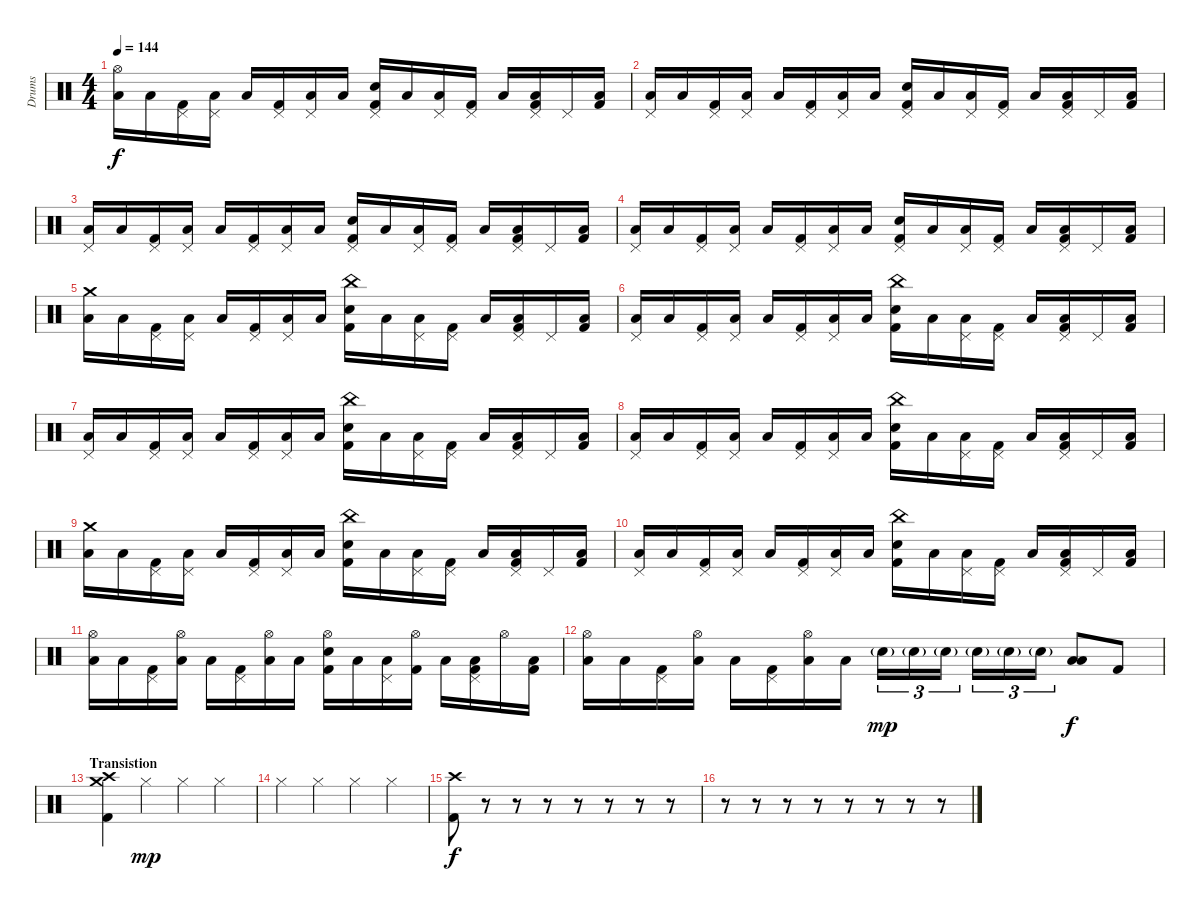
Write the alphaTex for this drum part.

\track ("Drums" "Drums") {instrument percussion}
\staff {score}
\articulation defaults
\ts (4 4)
\tempo 144
\clef neutral
\ks c
("Hi-Hat (open)" "Low Floor Tom (hit)").16{dy f} "Low Floor Tom (hit)".16 ("Pedal Hi-Hat (hit)" "Kick (hit) 2").16 ("Pedal Hi-Hat (hit)" "Low Floor Tom (hit)").16 "Low Floor Tom (hit)".16 ("Pedal Hi-Hat (hit)" "Kick (hit) 2").16 ("Pedal Hi-Hat (hit)" "Low Floor Tom (hit)").16 "Low Floor Tom (hit)".16 ("Pedal Hi-Hat (hit)" "Electric Snare (hit)" "Kick (hit) 2").16 "Low Floor Tom (hit)".16 ("Pedal Hi-Hat (hit)" "Low Floor Tom (hit)").16 ("Pedal Hi-Hat (hit)" "Kick (hit) 2").16 "Low Floor Tom (hit)".16 ("Pedal Hi-Hat (hit)" "Low Floor Tom (hit)" "Kick (hit) 2").16 "Pedal Hi-Hat (hit)".16 ("Low Floor Tom (hit)" "Kick (hit) 2").16 |
("Pedal Hi-Hat (hit)" "Low Floor Tom (hit)").16 "Low Floor Tom (hit)".16 ("Pedal Hi-Hat (hit)" "Kick (hit) 2").16 ("Pedal Hi-Hat (hit)" "Low Floor Tom (hit)").16 "Low Floor Tom (hit)".16 ("Pedal Hi-Hat (hit)" "Kick (hit) 2").16 ("Pedal Hi-Hat (hit)" "Low Floor Tom (hit)").16 "Low Floor Tom (hit)".16 ("Pedal Hi-Hat (hit)" "Electric Snare (hit)" "Kick (hit) 2").16 "Low Floor Tom (hit)".16 ("Pedal Hi-Hat (hit)" "Low Floor Tom (hit)").16 ("Pedal Hi-Hat (hit)" "Kick (hit) 2").16 "Low Floor Tom (hit)".16 ("Pedal Hi-Hat (hit)" "Low Floor Tom (hit)" "Kick (hit) 2").16 "Pedal Hi-Hat (hit)".16 ("Low Floor Tom (hit)" "Kick (hit) 2").16 |
("Pedal Hi-Hat (hit)" "Low Floor Tom (hit)").16 "Low Floor Tom (hit)".16 ("Pedal Hi-Hat (hit)" "Kick (hit) 2").16 ("Pedal Hi-Hat (hit)" "Low Floor Tom (hit)").16 "Low Floor Tom (hit)".16 ("Pedal Hi-Hat (hit)" "Kick (hit) 2").16 ("Pedal Hi-Hat (hit)" "Low Floor Tom (hit)").16 "Low Floor Tom (hit)".16 ("Pedal Hi-Hat (hit)" "Electric Snare (hit)" "Kick (hit) 2").16 "Low Floor Tom (hit)".16 ("Pedal Hi-Hat (hit)" "Low Floor Tom (hit)").16 ("Pedal Hi-Hat (hit)" "Kick (hit) 2").16 "Low Floor Tom (hit)".16 ("Pedal Hi-Hat (hit)" "Low Floor Tom (hit)" "Kick (hit) 2").16 "Pedal Hi-Hat (hit)".16 ("Low Floor Tom (hit)" "Kick (hit) 2").16 |
("Pedal Hi-Hat (hit)" "Low Floor Tom (hit)").16 "Low Floor Tom (hit)".16 ("Pedal Hi-Hat (hit)" "Kick (hit) 2").16 ("Pedal Hi-Hat (hit)" "Low Floor Tom (hit)").16 "Low Floor Tom (hit)".16 ("Pedal Hi-Hat (hit)" "Kick (hit) 2").16 ("Pedal Hi-Hat (hit)" "Low Floor Tom (hit)").16 "Low Floor Tom (hit)".16 ("Pedal Hi-Hat (hit)" "Electric Snare (hit)" "Kick (hit) 2").16 "Low Floor Tom (hit)".16 ("Pedal Hi-Hat (hit)" "Low Floor Tom (hit)").16 ("Pedal Hi-Hat (hit)" "Kick (hit) 2").16 "Low Floor Tom (hit)".16 ("Pedal Hi-Hat (hit)" "Low Floor Tom (hit)" "Kick (hit) 2").16 "Pedal Hi-Hat (hit)".16 ("Low Floor Tom (hit)" "Kick (hit) 2").16 |
("Crash medium (hit)" "Low Floor Tom (hit)").16 "Low Floor Tom (hit)".16 ("Pedal Hi-Hat (hit)" "Kick (hit) 2").16 ("Pedal Hi-Hat (hit)" "Low Floor Tom (hit)").16 "Low Floor Tom (hit)".16 ("Pedal Hi-Hat (hit)" "Kick (hit) 2").16 ("Pedal Hi-Hat (hit)" "Low Floor Tom (hit)").16 "Low Floor Tom (hit)".16 ("China (hit)" "Electric Snare (hit)" "Kick (hit) 2").16 "Low Floor Tom (hit)".16 ("Pedal Hi-Hat (hit)" "Low Floor Tom (hit)").16 ("Pedal Hi-Hat (hit)" "Kick (hit) 2").16 "Low Floor Tom (hit)".16 ("Pedal Hi-Hat (hit)" "Low Floor Tom (hit)" "Kick (hit) 2").16 "Pedal Hi-Hat (hit)".16 ("Low Floor Tom (hit)" "Kick (hit) 2").16 |
("Pedal Hi-Hat (hit)" "Low Floor Tom (hit)").16 "Low Floor Tom (hit)".16 ("Pedal Hi-Hat (hit)" "Kick (hit) 2").16 ("Pedal Hi-Hat (hit)" "Low Floor Tom (hit)").16 "Low Floor Tom (hit)".16 ("Pedal Hi-Hat (hit)" "Kick (hit) 2").16 ("Pedal Hi-Hat (hit)" "Low Floor Tom (hit)").16 "Low Floor Tom (hit)".16 ("China (hit)" "Electric Snare (hit)" "Kick (hit) 2").16 "Low Floor Tom (hit)".16 ("Pedal Hi-Hat (hit)" "Low Floor Tom (hit)").16 ("Pedal Hi-Hat (hit)" "Kick (hit) 2").16 "Low Floor Tom (hit)".16 ("Pedal Hi-Hat (hit)" "Low Floor Tom (hit)" "Kick (hit) 2").16 "Pedal Hi-Hat (hit)".16 ("Low Floor Tom (hit)" "Kick (hit) 2").16 |
("Pedal Hi-Hat (hit)" "Low Floor Tom (hit)").16 "Low Floor Tom (hit)".16 ("Pedal Hi-Hat (hit)" "Kick (hit) 2").16 ("Pedal Hi-Hat (hit)" "Low Floor Tom (hit)").16 "Low Floor Tom (hit)".16 ("Pedal Hi-Hat (hit)" "Kick (hit) 2").16 ("Pedal Hi-Hat (hit)" "Low Floor Tom (hit)").16 "Low Floor Tom (hit)".16 ("China (hit)" "Electric Snare (hit)" "Kick (hit) 2").16 "Low Floor Tom (hit)".16 ("Pedal Hi-Hat (hit)" "Low Floor Tom (hit)").16 ("Pedal Hi-Hat (hit)" "Kick (hit) 2").16 "Low Floor Tom (hit)".16 ("Pedal Hi-Hat (hit)" "Low Floor Tom (hit)" "Kick (hit) 2").16 "Pedal Hi-Hat (hit)".16 ("Low Floor Tom (hit)" "Kick (hit) 2").16 |
("Pedal Hi-Hat (hit)" "Low Floor Tom (hit)").16 "Low Floor Tom (hit)".16 ("Pedal Hi-Hat (hit)" "Kick (hit) 2").16 ("Pedal Hi-Hat (hit)" "Low Floor Tom (hit)").16 "Low Floor Tom (hit)".16 ("Pedal Hi-Hat (hit)" "Kick (hit) 2").16 ("Pedal Hi-Hat (hit)" "Low Floor Tom (hit)").16 "Low Floor Tom (hit)".16 ("China (hit)" "Electric Snare (hit)" "Kick (hit) 2").16 "Low Floor Tom (hit)".16 ("Pedal Hi-Hat (hit)" "Low Floor Tom (hit)").16 ("Pedal Hi-Hat (hit)" "Kick (hit) 2").16 "Low Floor Tom (hit)".16 ("Pedal Hi-Hat (hit)" "Low Floor Tom (hit)" "Kick (hit) 2").16 "Pedal Hi-Hat (hit)".16 ("Low Floor Tom (hit)" "Kick (hit) 2").16 |
("Crash medium (hit)" "Low Floor Tom (hit)").16 "Low Floor Tom (hit)".16 ("Pedal Hi-Hat (hit)" "Kick (hit) 2").16 ("Pedal Hi-Hat (hit)" "Low Floor Tom (hit)").16 "Low Floor Tom (hit)".16 ("Pedal Hi-Hat (hit)" "Kick (hit) 2").16 ("Pedal Hi-Hat (hit)" "Low Floor Tom (hit)").16 "Low Floor Tom (hit)".16 ("China (hit)" "Electric Snare (hit)" "Kick (hit) 2").16 "Low Floor Tom (hit)".16 ("Pedal Hi-Hat (hit)" "Low Floor Tom (hit)").16 ("Pedal Hi-Hat (hit)" "Kick (hit) 2").16 "Low Floor Tom (hit)".16 ("Pedal Hi-Hat (hit)" "Low Floor Tom (hit)" "Kick (hit) 2").16 "Pedal Hi-Hat (hit)".16 ("Low Floor Tom (hit)" "Kick (hit) 2").16 |
("Pedal Hi-Hat (hit)" "Low Floor Tom (hit)").16 "Low Floor Tom (hit)".16 ("Pedal Hi-Hat (hit)" "Kick (hit) 2").16 ("Pedal Hi-Hat (hit)" "Low Floor Tom (hit)").16 "Low Floor Tom (hit)".16 ("Pedal Hi-Hat (hit)" "Kick (hit) 2").16 ("Pedal Hi-Hat (hit)" "Low Floor Tom (hit)").16 "Low Floor Tom (hit)".16 ("China (hit)" "Electric Snare (hit)" "Kick (hit) 2").16 "Low Floor Tom (hit)".16 ("Pedal Hi-Hat (hit)" "Low Floor Tom (hit)").16 ("Pedal Hi-Hat (hit)" "Kick (hit) 2").16 "Low Floor Tom (hit)".16 ("Pedal Hi-Hat (hit)" "Low Floor Tom (hit)" "Kick (hit) 2").16 "Pedal Hi-Hat (hit)".16 ("Low Floor Tom (hit)" "Kick (hit) 2").16 |
("Hi-Hat (open)" "Low Floor Tom (hit)").16 "Low Floor Tom (hit)".16 ("Pedal Hi-Hat (hit)" "Kick (hit) 2").16 ("Hi-Hat (open)" "Low Floor Tom (hit)").16 "Low Floor Tom (hit)".16 ("Pedal Hi-Hat (hit)" "Kick (hit) 2").16 ("Hi-Hat (open)" "Low Floor Tom (hit)").16 "Low Floor Tom (hit)".16 ("Hi-Hat (open)" "Electric Snare (hit)" "Kick (hit) 2").16 "Low Floor Tom (hit)".16 ("Pedal Hi-Hat (hit)" "Low Floor Tom (hit)").16 ("Hi-Hat (open)" "Kick (hit) 2").16 "Low Floor Tom (hit)".16 ("Pedal Hi-Hat (hit)" "Low Floor Tom (hit)" "Kick (hit) 2").16 "Hi-Hat (open)".16 ("Low Floor Tom (hit)" "Kick (hit) 2").16 |
("Hi-Hat (open)" "Low Floor Tom (hit)").16 "Low Floor Tom (hit)".16 ("Pedal Hi-Hat (hit)" "Kick (hit) 2").16 ("Hi-Hat (open)" "Low Floor Tom (hit)").16 "Low Floor Tom (hit)".16 ("Pedal Hi-Hat (hit)" "Kick (hit) 2").16 ("Hi-Hat (open)" "Low Floor Tom (hit)").16 "Low Floor Tom (hit)".16 "Snare (hit) 2"{g}.16{tu (3 2) dy mp} "Snare (hit) 2"{g}.16{tu (3 2)} "Snare (hit) 2"{g}.16{tu (3 2)} "Snare (hit) 2"{g}.16{tu (3 2)} "Snare (hit) 2"{g}.16{tu (3 2)} "Snare (hit) 2"{g}.16{tu (3 2)} ("Low Floor Tom (hit)" "Low Tom (hit)").8{dy f} "Kick (hit) 2".8 |
\section ("" "Transistion")
("Crash medium (hit)" "Crash high (hit)" "Kick (hit) 2").4 "Hi-Hat (closed)".4{dy mp} "Hi-Hat (closed)".4 "Hi-Hat (closed)".4 |
"Hi-Hat (closed)".4 "Hi-Hat (closed)".4 "Hi-Hat (closed)".4 "Hi-Hat (closed)".4 |
("Crash high (hit)" "Kick (hit) 2").8{dy f} r.8 r.8 r.8 r.8 r.8 r.8 r.8 |
r.8 r.8 r.8 r.8 r.8 r.8 r.8 r.8
